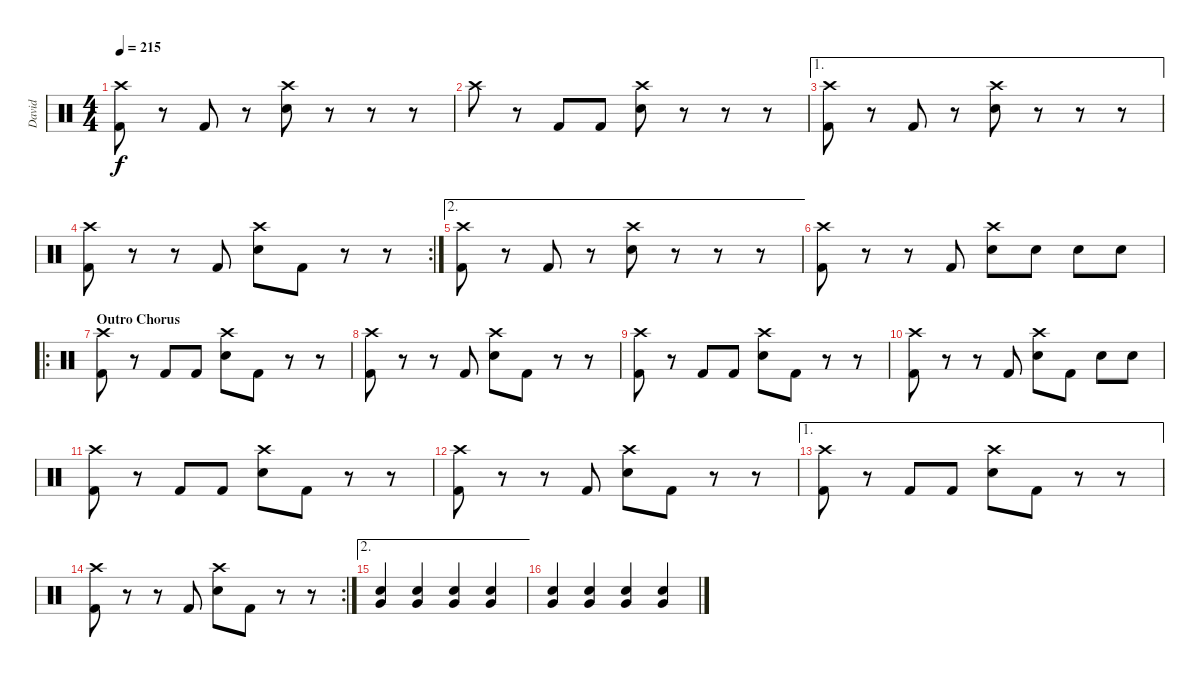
\track ("David" "David") {instrument percussion}
\staff {score}
\articulation defaults
\ts (4 4)
\tempo 215
\clef neutral
\ks c
("Crash high (hit)" "Kick (hit) 2").8{dy f} r.8 "Kick (hit) 2".8 r.8 ("Crash high (hit)" "Electric Snare (hit)").8 r.8 r.8 r.8 |
"Crash high (hit)".8 r.8 "Kick (hit) 2".8 "Kick (hit) 2".8 ("Crash high (hit)" "Electric Snare (hit)").8 r.8 r.8 r.8 |
\ae 1
("Crash high (hit)" "Kick (hit) 2").8 r.8 "Kick (hit) 2".8 r.8 ("Crash high (hit)" "Electric Snare (hit)").8 r.8 r.8 r.8 |
\rc 2
("Crash high (hit)" "Kick (hit) 2").8 r.8 r.8 "Kick (hit) 2".8 ("Crash high (hit)" "Electric Snare (hit)").8 "Kick (hit) 2".8 r.8 r.8 |
\ae 2
("Crash high (hit)" "Kick (hit) 2").8 r.8 "Kick (hit) 2".8 r.8 ("Crash high (hit)" "Electric Snare (hit)").8 r.8 r.8 r.8 |
("Crash high (hit)" "Kick (hit) 2").8 r.8 r.8 "Kick (hit) 2".8 ("Crash high (hit)" "Electric Snare (hit)").8 "Electric Snare (hit)".8 "Electric Snare (hit)".8 "Electric Snare (hit)".8 |
\ro
\section ("" "Outro Chorus")
("Crash high (hit)" "Kick (hit) 2").8 r.8 "Kick (hit) 2".8 "Kick (hit) 2".8 ("Crash high (hit)" "Electric Snare (hit)").8 "Kick (hit) 2".8 r.8 r.8 |
("Crash high (hit)" "Kick (hit) 2").8 r.8 r.8 "Kick (hit) 2".8 ("Crash high (hit)" "Electric Snare (hit)").8 "Kick (hit) 2".8 r.8 r.8 |
("Crash high (hit)" "Kick (hit) 2").8 r.8 "Kick (hit) 2".8 "Kick (hit) 2".8 ("Crash high (hit)" "Electric Snare (hit)").8 "Kick (hit) 2".8 r.8 r.8 |
("Crash high (hit)" "Kick (hit) 2").8 r.8 r.8 "Kick (hit) 2".8 ("Crash high (hit)" "Electric Snare (hit)").8 "Kick (hit) 2".8 "Electric Snare (hit)".8 "Electric Snare (hit)".8 |
("Crash high (hit)" "Kick (hit) 2").8 r.8 "Kick (hit) 2".8 "Kick (hit) 2".8 ("Crash high (hit)" "Electric Snare (hit)").8 "Kick (hit) 2".8 r.8 r.8 |
("Crash high (hit)" "Kick (hit) 2").8 r.8 r.8 "Kick (hit) 2".8 ("Crash high (hit)" "Electric Snare (hit)").8 "Kick (hit) 2".8 r.8 r.8 |
\ae 1
("Crash high (hit)" "Kick (hit) 2").8 r.8 "Kick (hit) 2".8 "Kick (hit) 2".8 ("Crash high (hit)" "Electric Snare (hit)").8 "Kick (hit) 2".8 r.8 r.8 |
\rc 2
("Crash high (hit)" "Kick (hit) 2").8 r.8 r.8 "Kick (hit) 2".8 ("Crash high (hit)" "Electric Snare (hit)").8 "Kick (hit) 2".8 r.8 r.8 |
\ae 2
("Very Low Tom (hit)" "Electric Snare (hit)").4{volume 8} ("Very Low Tom (hit)" "Electric Snare (hit)").4{volume 13} ("Very Low Tom (hit)" "Electric Snare (hit)").4 ("Very Low Tom (hit)" "Electric Snare (hit)").4 |
("Very Low Tom (hit)" "Electric Snare (hit)").4 ("Very Low Tom (hit)" "Electric Snare (hit)").4 ("Very Low Tom (hit)" "Electric Snare (hit)").4 ("Very Low Tom (hit)" "Electric Snare (hit)").4
